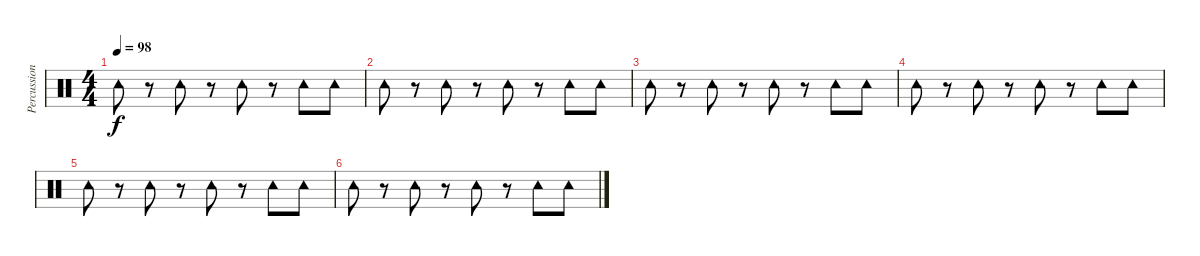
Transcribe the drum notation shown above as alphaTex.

\track ("Percussions" "Percussion") {instrument percussion}
\staff {score}
\articulation defaults
\ts (4 4)
\tempo 98
\clef neutral
\ks c "Tambourine (hit)".8{dy f}
r.8 "Tambourine (hit)".8 r.8 "Tambourine (hit)".8 r.8 "Tambourine (hit)".8 "Tambourine (hit)".8 |
"Tambourine (hit)".8 r.8 "Tambourine (hit)".8 r.8 "Tambourine (hit)".8 r.8 "Tambourine (hit)".8 "Tambourine (hit)".8 |
"Tambourine (hit)".8 r.8 "Tambourine (hit)".8 r.8 "Tambourine (hit)".8 r.8 "Tambourine (hit)".8 "Tambourine (hit)".8 |
"Tambourine (hit)".8 r.8 "Tambourine (hit)".8 r.8 "Tambourine (hit)".8 r.8 "Tambourine (hit)".8 "Tambourine (hit)".8 |
"Tambourine (hit)".8 r.8 "Tambourine (hit)".8 r.8 "Tambourine (hit)".8 r.8 "Tambourine (hit)".8 "Tambourine (hit)".8 |
"Tambourine (hit)".8 r.8 "Tambourine (hit)".8 r.8 "Tambourine (hit)".8 r.8 "Tambourine (hit)".8 "Tambourine (hit)".8
